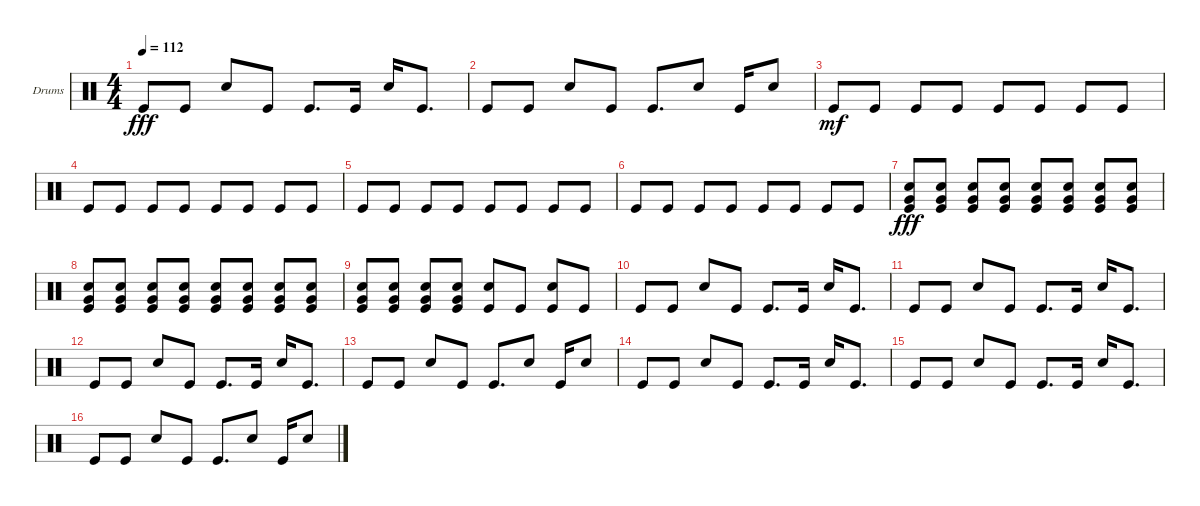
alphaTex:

\defaultSystemsLayout 4
\bracketExtendMode groupsimilarinstruments
\firstSystemTrackNameOrientation horizontal
\otherSystemsTrackNameOrientation horizontal
\track ("Helders" "Drums") {instrument percussion}
\staff {score}
\articulation defaults
\ts (4 4)
\tempo 112
\clef neutral
\ks c "Kick (hit)".8{dy fff} "Kick (hit)".8 "Snare (hit) 2".8 "Kick (hit)".8 "Kick (hit)".8{d} "Kick (hit)".16 "Snare (hit) 2".16 "Kick (hit)".8{d}
|
"Kick (hit)".8 "Kick (hit)".8 "Snare (hit) 2".8 "Kick (hit)".8 "Kick (hit)".8{d} "Snare (hit) 2".8 "Kick (hit)".16 "Snare (hit) 2".8 |
"Kick (hit)".8{dy mf} "Kick (hit)".8 "Kick (hit)".8 "Kick (hit)".8 "Kick (hit)".8 "Kick (hit)".8 "Kick (hit)".8 "Kick (hit)".8 |
"Kick (hit)".8 "Kick (hit)".8 "Kick (hit)".8 "Kick (hit)".8 "Kick (hit)".8 "Kick (hit)".8 "Kick (hit)".8 "Kick (hit)".8 |
"Kick (hit)".8 "Kick (hit)".8 "Kick (hit)".8 "Kick (hit)".8 "Kick (hit)".8 "Kick (hit)".8 "Kick (hit)".8 "Kick (hit)".8 |
"Kick (hit)".8 "Kick (hit)".8 "Kick (hit)".8 "Kick (hit)".8 "Kick (hit)".8 "Kick (hit)".8 "Kick (hit)".8 "Kick (hit)".8 |
("Snare (hit) 2" "Kick (hit)" "Very Low Tom (hit)").8{dy fff} ("Snare (hit) 2" "Kick (hit)" "Very Low Tom (hit)").8 ("Snare (hit) 2" "Kick (hit)" "Very Low Tom (hit)").8 ("Snare (hit) 2" "Kick (hit)" "Very Low Tom (hit)").8 ("Snare (hit) 2" "Kick (hit)" "Very Low Tom (hit)").8 ("Snare (hit) 2" "Kick (hit)" "Very Low Tom (hit)").8 ("Snare (hit) 2" "Kick (hit)" "Very Low Tom (hit)").8 ("Snare (hit) 2" "Kick (hit)" "Very Low Tom (hit)").8 |
("Snare (hit) 2" "Kick (hit)" "Very Low Tom (hit)").8 ("Snare (hit) 2" "Kick (hit)" "Very Low Tom (hit)").8 ("Snare (hit) 2" "Kick (hit)" "Very Low Tom (hit)").8 ("Snare (hit) 2" "Kick (hit)" "Very Low Tom (hit)").8 ("Snare (hit) 2" "Kick (hit)" "Very Low Tom (hit)").8 ("Snare (hit) 2" "Kick (hit)" "Very Low Tom (hit)").8 ("Snare (hit) 2" "Kick (hit)" "Very Low Tom (hit)").8 ("Snare (hit) 2" "Kick (hit)" "Very Low Tom (hit)").8 |
("Snare (hit) 2" "Kick (hit)" "Very Low Tom (hit)").8 ("Snare (hit) 2" "Kick (hit)" "Very Low Tom (hit)").8 ("Snare (hit) 2" "Kick (hit)" "Very Low Tom (hit)").8 ("Snare (hit) 2" "Kick (hit)" "Very Low Tom (hit)").8 ("Kick (hit)" "Snare (hit) 2").8 "Kick (hit)".8 ("Snare (hit) 2" "Kick (hit)").8 "Kick (hit)".8 |
"Kick (hit)".8 "Kick (hit)".8 "Snare (hit) 2".8 "Kick (hit)".8 "Kick (hit)".8{d} "Kick (hit)".16 "Snare (hit) 2".16 "Kick (hit)".8{d} |
"Kick (hit)".8 "Kick (hit)".8 "Snare (hit) 2".8 "Kick (hit)".8 "Kick (hit)".8{d} "Kick (hit)".16 "Snare (hit) 2".16 "Kick (hit)".8{d} |
"Kick (hit)".8 "Kick (hit)".8 "Snare (hit) 2".8 "Kick (hit)".8 "Kick (hit)".8{d} "Kick (hit)".16 "Snare (hit) 2".16 "Kick (hit)".8{d} |
"Kick (hit)".8 "Kick (hit)".8 "Snare (hit) 2".8 "Kick (hit)".8 "Kick (hit)".8{d} "Snare (hit) 2".8 "Kick (hit)".16 "Snare (hit) 2".8 |
"Kick (hit)".8 "Kick (hit)".8 "Snare (hit) 2".8 "Kick (hit)".8 "Kick (hit)".8{d} "Kick (hit)".16 "Snare (hit) 2".16 "Kick (hit)".8{d} |
"Kick (hit)".8 "Kick (hit)".8 "Snare (hit) 2".8 "Kick (hit)".8 "Kick (hit)".8{d} "Kick (hit)".16 "Snare (hit) 2".16 "Kick (hit)".8{d} |
"Kick (hit)".8 "Kick (hit)".8 "Snare (hit) 2".8 "Kick (hit)".8 "Kick (hit)".8{d} "Snare (hit) 2".8 "Kick (hit)".16 "Snare (hit) 2".8
